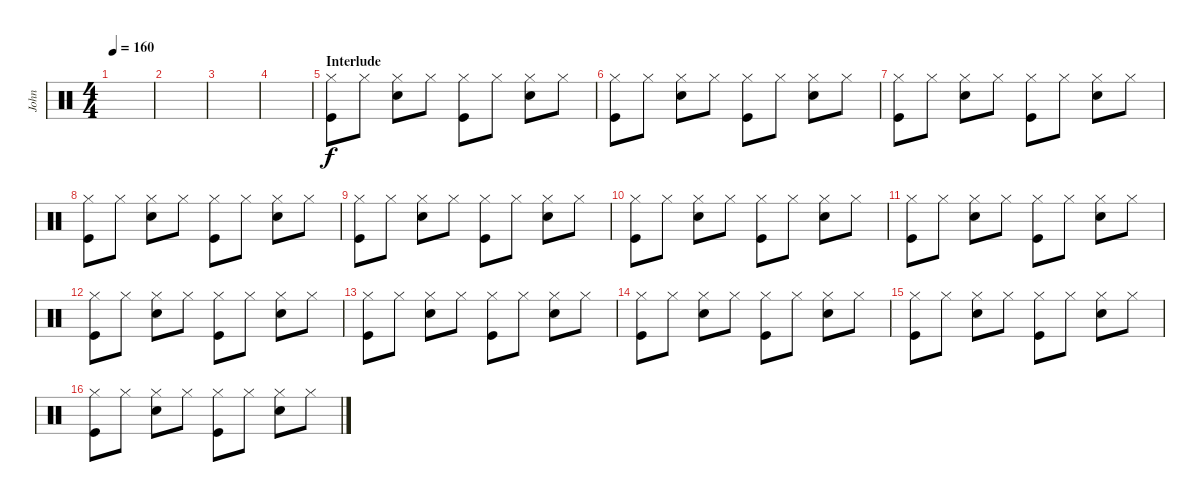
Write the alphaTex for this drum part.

\track ("John" "John") {instrument percussion}
\staff {score}
\articulation defaults
\ts (4 4)
\tempo 160
\clef neutral
\ks c
|
|
|
|
\section ("" "Interlude")
("Hi-Hat (closed)" "Kick (hit)").8{dy f} "Hi-Hat (closed)".8 ("Hi-Hat (closed)" "Electric Snare (hit)").8 "Hi-Hat (closed)".8 ("Hi-Hat (closed)" "Kick (hit)").8 "Hi-Hat (closed)".8 ("Hi-Hat (closed)" "Electric Snare (hit)").8 "Hi-Hat (closed)".8 |
("Hi-Hat (closed)" "Kick (hit)").8 "Hi-Hat (closed)".8 ("Hi-Hat (closed)" "Electric Snare (hit)").8 "Hi-Hat (closed)".8 ("Hi-Hat (closed)" "Kick (hit)").8 "Hi-Hat (closed)".8 ("Hi-Hat (closed)" "Electric Snare (hit)").8 "Hi-Hat (closed)".8 |
("Hi-Hat (closed)" "Kick (hit)").8 "Hi-Hat (closed)".8 ("Hi-Hat (closed)" "Electric Snare (hit)").8 "Hi-Hat (closed)".8 ("Hi-Hat (closed)" "Kick (hit)").8 "Hi-Hat (closed)".8 ("Hi-Hat (closed)" "Electric Snare (hit)").8 "Hi-Hat (closed)".8 |
("Hi-Hat (closed)" "Kick (hit)").8 "Hi-Hat (closed)".8 ("Hi-Hat (closed)" "Electric Snare (hit)").8 "Hi-Hat (closed)".8 ("Hi-Hat (closed)" "Kick (hit)").8 "Hi-Hat (closed)".8 ("Hi-Hat (closed)" "Electric Snare (hit)").8 "Hi-Hat (closed)".8 |
("Hi-Hat (closed)" "Kick (hit)").8 "Hi-Hat (closed)".8 ("Hi-Hat (closed)" "Electric Snare (hit)").8 "Hi-Hat (closed)".8 ("Hi-Hat (closed)" "Kick (hit)").8 "Hi-Hat (closed)".8 ("Hi-Hat (closed)" "Electric Snare (hit)").8 "Hi-Hat (closed)".8 |
("Hi-Hat (closed)" "Kick (hit)").8 "Hi-Hat (closed)".8 ("Hi-Hat (closed)" "Electric Snare (hit)").8 "Hi-Hat (closed)".8 ("Hi-Hat (closed)" "Kick (hit)").8 "Hi-Hat (closed)".8 ("Hi-Hat (closed)" "Electric Snare (hit)").8 "Hi-Hat (closed)".8 |
("Hi-Hat (closed)" "Kick (hit)").8 "Hi-Hat (closed)".8 ("Hi-Hat (closed)" "Electric Snare (hit)").8 "Hi-Hat (closed)".8 ("Hi-Hat (closed)" "Kick (hit)").8 "Hi-Hat (closed)".8 ("Hi-Hat (closed)" "Electric Snare (hit)").8 "Hi-Hat (closed)".8 |
("Hi-Hat (closed)" "Kick (hit)").8 "Hi-Hat (closed)".8 ("Hi-Hat (closed)" "Electric Snare (hit)").8 "Hi-Hat (closed)".8 ("Hi-Hat (closed)" "Kick (hit)").8 "Hi-Hat (closed)".8 ("Hi-Hat (closed)" "Electric Snare (hit)").8 "Hi-Hat (closed)".8 |
("Hi-Hat (closed)" "Kick (hit)").8 "Hi-Hat (closed)".8 ("Hi-Hat (closed)" "Electric Snare (hit)").8 "Hi-Hat (closed)".8 ("Hi-Hat (closed)" "Kick (hit)").8 "Hi-Hat (closed)".8 ("Hi-Hat (closed)" "Electric Snare (hit)").8 "Hi-Hat (closed)".8 |
("Hi-Hat (closed)" "Kick (hit)").8 "Hi-Hat (closed)".8 ("Hi-Hat (closed)" "Electric Snare (hit)").8 "Hi-Hat (closed)".8 ("Hi-Hat (closed)" "Kick (hit)").8 "Hi-Hat (closed)".8 ("Hi-Hat (closed)" "Electric Snare (hit)").8 "Hi-Hat (closed)".8 |
("Hi-Hat (closed)" "Kick (hit)").8 "Hi-Hat (closed)".8 ("Hi-Hat (closed)" "Electric Snare (hit)").8 "Hi-Hat (closed)".8 ("Hi-Hat (closed)" "Kick (hit)").8 "Hi-Hat (closed)".8 ("Hi-Hat (closed)" "Electric Snare (hit)").8 "Hi-Hat (closed)".8 |
("Hi-Hat (closed)" "Kick (hit)").8 "Hi-Hat (closed)".8 ("Hi-Hat (closed)" "Electric Snare (hit)").8 "Hi-Hat (closed)".8 ("Hi-Hat (closed)" "Kick (hit)").8 "Hi-Hat (closed)".8 ("Hi-Hat (closed)" "Electric Snare (hit)").8 "Hi-Hat (closed)".8
